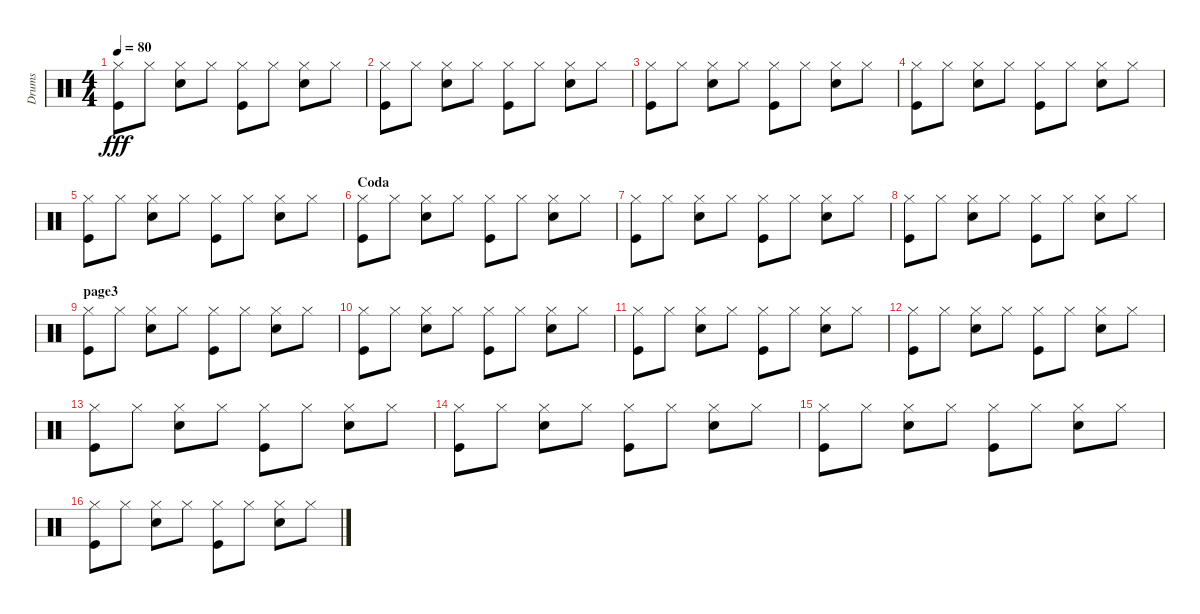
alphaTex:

\track ("Drums" "Drums") {instrument percussion}
\staff {score}
\articulation defaults
\ts (4 4)
\tempo 80
\clef neutral
\ks c
("Hi-Hat (closed)" "Kick (hit)").8{dy fff} "Hi-Hat (closed)".8 ("Hi-Hat (closed)" "Snare (hit) 2").8 "Hi-Hat (closed)".8 ("Hi-Hat (closed)" "Kick (hit)").8 "Hi-Hat (closed)".8 ("Hi-Hat (closed)" "Snare (hit) 2").8 "Hi-Hat (closed)".8 |
("Hi-Hat (closed)" "Kick (hit)").8 "Hi-Hat (closed)".8 ("Hi-Hat (closed)" "Snare (hit) 2").8 "Hi-Hat (closed)".8 ("Hi-Hat (closed)" "Kick (hit)").8 "Hi-Hat (closed)".8 ("Hi-Hat (closed)" "Snare (hit) 2").8 "Hi-Hat (closed)".8 |
("Hi-Hat (closed)" "Kick (hit)").8 "Hi-Hat (closed)".8 ("Hi-Hat (closed)" "Snare (hit) 2").8 "Hi-Hat (closed)".8 ("Hi-Hat (closed)" "Kick (hit)").8 "Hi-Hat (closed)".8 ("Hi-Hat (closed)" "Snare (hit) 2").8 "Hi-Hat (closed)".8 |
("Hi-Hat (closed)" "Kick (hit)").8 "Hi-Hat (closed)".8 ("Hi-Hat (closed)" "Snare (hit) 2").8 "Hi-Hat (closed)".8 ("Hi-Hat (closed)" "Kick (hit)").8 "Hi-Hat (closed)".8 ("Hi-Hat (closed)" "Snare (hit) 2").8 "Hi-Hat (closed)".8 |
("Hi-Hat (closed)" "Kick (hit)").8 "Hi-Hat (closed)".8 ("Hi-Hat (closed)" "Snare (hit) 2").8 "Hi-Hat (closed)".8 ("Hi-Hat (closed)" "Kick (hit)").8 "Hi-Hat (closed)".8 ("Hi-Hat (closed)" "Snare (hit) 2").8 "Hi-Hat (closed)".8 |
\section ("" "Coda")
("Hi-Hat (closed)" "Kick (hit)").8 "Hi-Hat (closed)".8 ("Hi-Hat (closed)" "Snare (hit) 2").8 "Hi-Hat (closed)".8 ("Hi-Hat (closed)" "Kick (hit)").8 "Hi-Hat (closed)".8 ("Hi-Hat (closed)" "Snare (hit) 2").8 "Hi-Hat (closed)".8 |
("Hi-Hat (closed)" "Kick (hit)").8 "Hi-Hat (closed)".8 ("Hi-Hat (closed)" "Snare (hit) 2").8 "Hi-Hat (closed)".8 ("Hi-Hat (closed)" "Kick (hit)").8 "Hi-Hat (closed)".8 ("Hi-Hat (closed)" "Snare (hit) 2").8 "Hi-Hat (closed)".8 |
("Hi-Hat (closed)" "Kick (hit)").8 "Hi-Hat (closed)".8 ("Hi-Hat (closed)" "Snare (hit) 2").8 "Hi-Hat (closed)".8 ("Hi-Hat (closed)" "Kick (hit)").8 "Hi-Hat (closed)".8 ("Hi-Hat (closed)" "Snare (hit) 2").8 "Hi-Hat (closed)".8 |
\section ("" "page3")
("Hi-Hat (closed)" "Kick (hit)").8 "Hi-Hat (closed)".8 ("Hi-Hat (closed)" "Snare (hit) 2").8 "Hi-Hat (closed)".8 ("Hi-Hat (closed)" "Kick (hit)").8 "Hi-Hat (closed)".8 ("Hi-Hat (closed)" "Snare (hit) 2").8 "Hi-Hat (closed)".8 |
("Hi-Hat (closed)" "Kick (hit)").8 "Hi-Hat (closed)".8 ("Hi-Hat (closed)" "Snare (hit) 2").8 "Hi-Hat (closed)".8 ("Hi-Hat (closed)" "Kick (hit)").8 "Hi-Hat (closed)".8 ("Hi-Hat (closed)" "Snare (hit) 2").8 "Hi-Hat (closed)".8 |
("Hi-Hat (closed)" "Kick (hit)").8 "Hi-Hat (closed)".8 ("Hi-Hat (closed)" "Snare (hit) 2").8 "Hi-Hat (closed)".8 ("Hi-Hat (closed)" "Kick (hit)").8 "Hi-Hat (closed)".8 ("Hi-Hat (closed)" "Snare (hit) 2").8 "Hi-Hat (closed)".8 |
("Hi-Hat (closed)" "Kick (hit)").8 "Hi-Hat (closed)".8 ("Hi-Hat (closed)" "Snare (hit) 2").8 "Hi-Hat (closed)".8 ("Hi-Hat (closed)" "Kick (hit)").8 "Hi-Hat (closed)".8 ("Hi-Hat (closed)" "Snare (hit) 2").8 "Hi-Hat (closed)".8 |
("Hi-Hat (closed)" "Kick (hit)").8 "Hi-Hat (closed)".8 ("Hi-Hat (closed)" "Snare (hit) 2").8 "Hi-Hat (closed)".8 ("Hi-Hat (closed)" "Kick (hit)").8 "Hi-Hat (closed)".8 ("Hi-Hat (closed)" "Snare (hit) 2").8 "Hi-Hat (closed)".8 |
("Hi-Hat (closed)" "Kick (hit)").8 "Hi-Hat (closed)".8 ("Hi-Hat (closed)" "Snare (hit) 2").8 "Hi-Hat (closed)".8 ("Hi-Hat (closed)" "Kick (hit)").8 "Hi-Hat (closed)".8 ("Hi-Hat (closed)" "Snare (hit) 2").8 "Hi-Hat (closed)".8 |
("Hi-Hat (closed)" "Kick (hit)").8 "Hi-Hat (closed)".8 ("Hi-Hat (closed)" "Snare (hit) 2").8 "Hi-Hat (closed)".8 ("Hi-Hat (closed)" "Kick (hit)").8 "Hi-Hat (closed)".8 ("Hi-Hat (closed)" "Snare (hit) 2").8 "Hi-Hat (closed)".8 |
("Hi-Hat (closed)" "Kick (hit)").8 "Hi-Hat (closed)".8 ("Hi-Hat (closed)" "Snare (hit) 2").8 "Hi-Hat (closed)".8 ("Hi-Hat (closed)" "Kick (hit)").8 "Hi-Hat (closed)".8 ("Hi-Hat (closed)" "Snare (hit) 2").8 "Hi-Hat (closed)".8
